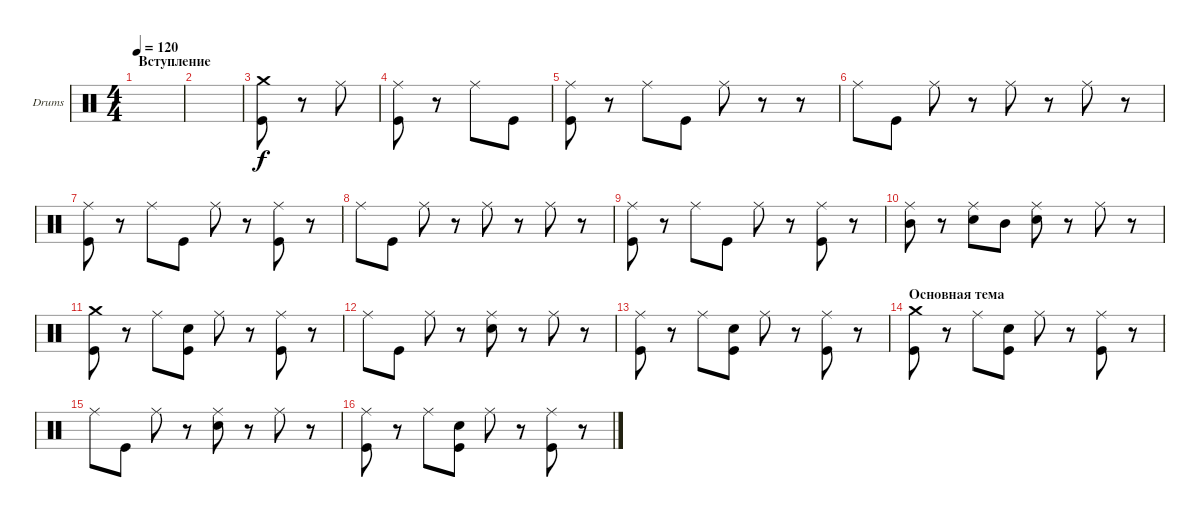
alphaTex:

\defaultSystemsLayout 4
\bracketExtendMode groupsimilarinstruments
\firstSystemTrackNameOrientation horizontal
\otherSystemsTrackNameOrientation horizontal
\track ("Drumkit" "Drums") {instrument percussion}
\staff {score}
\articulation defaults
\ts (4 4)
\section ("" "Вступление")
\tempo 120
\clef neutral
\scale
0.474178
\ks c
|
\scale
0.262911 |
\scale
0.262911 ("Crash medium (hit)" "Kick (hit)").8 r.8 "Ride (middle)".8 |
\scale
0.333333 ("Ride (middle)" "Kick (hit)").8 r.8 "Ride (middle)".8 "Kick (hit)".8 |
\scale
0.333333 ("Ride (middle)" "Kick (hit)").8 r.8 "Ride (middle)".8 "Kick (hit)".8 "Ride (middle)".8 r.8 r.8 |
\scale
0.333333 "Ride (middle)".8 "Kick (hit)".8 "Ride (middle)".8 r.8 "Ride (middle)".8 r.8 "Ride (middle)".8 r.8 |
\scale
0.333333 ("Ride (middle)" "Kick (hit)").8 r.8 "Ride (middle)".8 "Kick (hit)".8 "Ride (middle)".8 r.8 ("Ride (middle)" "Kick (hit)").8 r.8 |
\scale
0.333333 "Ride (middle)".8 "Kick (hit)".8 "Ride (middle)".8 r.8 "Ride (middle)".8 r.8 "Ride (middle)".8 r.8 |
\scale
0.333333 ("Ride (middle)" "Kick (hit)").8 r.8 "Ride (middle)".8 "Kick (hit)".8 "Ride (middle)".8 r.8 ("Ride (middle)" "Kick (hit)").8 r.8 |
\scale
0.333333 ("Ride (middle)" "Mid Tom (hit)").8 r.8 ("Ride (middle)" "Snare (hit) 2").8 "Mid Tom (hit)".8 ("Ride (middle)" "Snare (hit) 2").8 r.8 "Ride (middle)".8 r.8 |
\scale
0.333333 ("Crash medium (hit)" "Kick (hit)").8 r.8 "Ride (middle)".8 ("Snare (hit) 2" "Kick (hit)").8 "Ride (middle)".8 r.8 ("Ride (middle)" "Kick (hit)").8 r.8 |
\scale
0.333333 "Ride (middle)".8 "Kick (hit)".8 "Ride (middle)".8 r.8 ("Ride (middle)" "Snare (hit) 2").8 r.8 "Ride (middle)".8 r.8 |
\scale
0.333333 ("Ride (middle)" "Kick (hit)").8 r.8 "Ride (middle)".8 ("Snare (hit) 2" "Kick (hit)").8 "Ride (middle)".8 r.8 ("Ride (middle)" "Kick (hit)").8 r.8 |
\section ("" "Основная тема")
\scale
0.333333 ("Crash medium (hit)" "Kick (hit)").8 r.8 "Ride (middle)".8 ("Snare (hit) 2" "Kick (hit)").8 "Ride (middle)".8 r.8 ("Ride (middle)" "Kick (hit)").8 r.8 |
\scale
0.333333 "Ride (middle)".8 "Kick (hit)".8 "Ride (middle)".8 r.8 ("Ride (middle)" "Snare (hit) 2").8 r.8 "Ride (middle)".8 r.8 |
\scale
0.333333 ("Ride (middle)" "Kick (hit)").8 r.8 "Ride (middle)".8 ("Snare (hit) 2" "Kick (hit)").8 "Ride (middle)".8 r.8 ("Ride (middle)" "Kick (hit)").8 r.8
